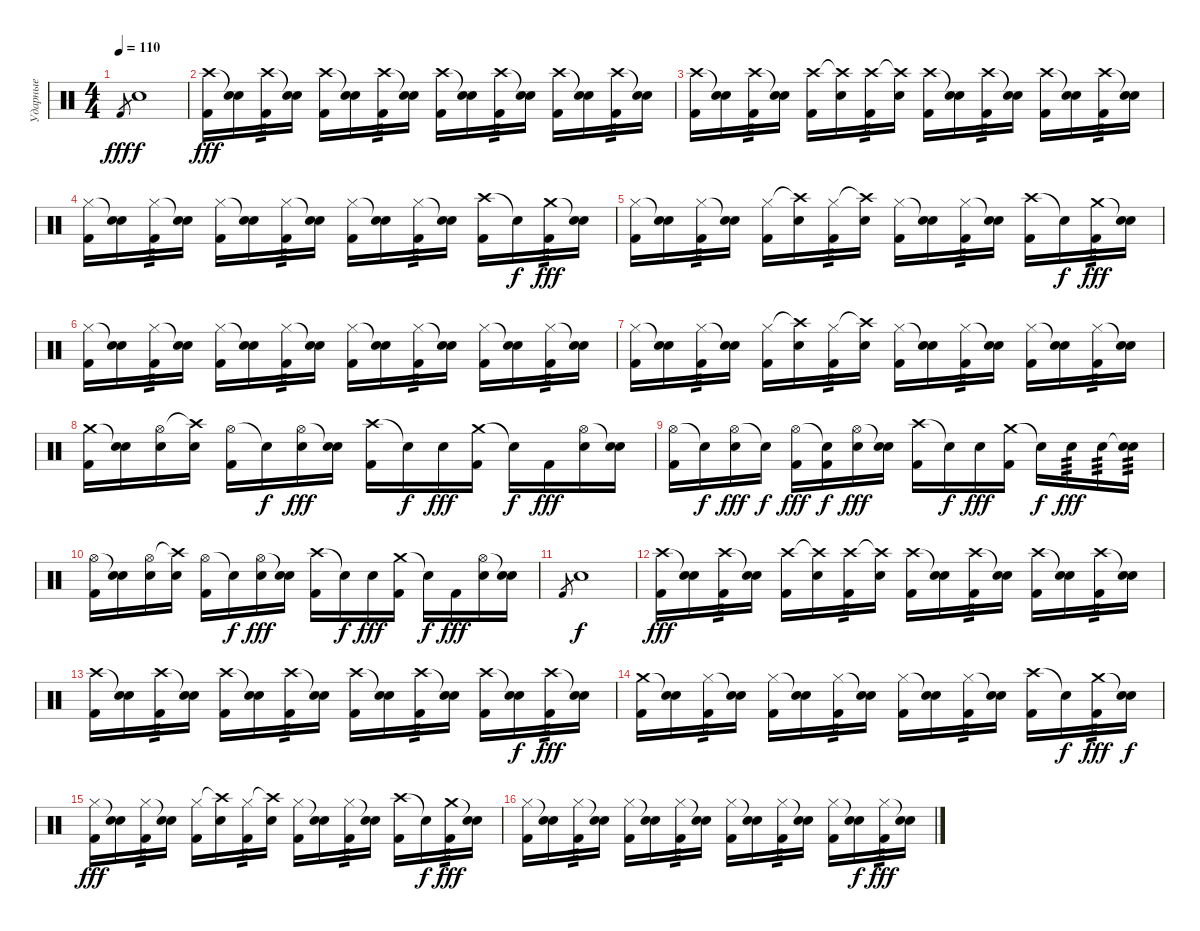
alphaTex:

\track ("Ударные" "Ударные") {instrument percussion}
\staff {score}
\articulation defaults
\ts (4 4)
\tempo 110
\clef neutral
\ks c "Kick (hit) 2".8{gr dy fff} "Electric Snare (hit)".1{dy f}
|
("Crash high (hit)" "Kick (hit) 2").16{dy fff} ("Snare (hit)"{t} "Electric Snare (hit)").16 ("Crash high (hit)" "Kick (hit) 2").16{tp 3} ("Snare (hit)"{t} "Electric Snare (hit)").16 ("Crash high (hit)" "Kick (hit) 2").16 ("Snare (hit)"{t} "Electric Snare (hit)").16 ("Crash high (hit)" "Kick (hit) 2").16{tp 3} ("Snare (hit)"{t} "Electric Snare (hit)").16 ("Crash high (hit)" "Kick (hit) 2").16 ("Snare (hit)"{t} "Electric Snare (hit)").16 ("Crash high (hit)" "Kick (hit) 2").16{tp 3} ("Snare (hit)"{t} "Electric Snare (hit)").16 ("Crash high (hit)" "Kick (hit) 2").16 ("Snare (hit)"{t} "Electric Snare (hit)").16 ("Crash high (hit)" "Kick (hit) 2").16{tp 3} ("Snare (hit)"{t} "Electric Snare (hit)").16 |
("Crash high (hit)" "Kick (hit) 2").16 ("Snare (hit)"{t} "Electric Snare (hit)").16 ("Crash high (hit)" "Kick (hit) 2").16{tp 3} ("Snare (hit)"{t} "Electric Snare (hit)").16 ("Crash high (hit)" "Kick (hit) 2").16 ("Crash high (hit)"{t} "Electric Snare (hit)").16 ("Crash high (hit)" "Kick (hit) 2").16{tp 3} ("Crash high (hit)"{t} "Electric Snare (hit)").16 ("Crash high (hit)" "Kick (hit) 2").16 ("Snare (hit)"{t} "Electric Snare (hit)").16 ("Crash high (hit)" "Kick (hit) 2").16{tp 3} ("Snare (hit)"{t} "Electric Snare (hit)").16 ("Crash high (hit)" "Kick (hit) 2").16 ("Snare (hit)"{t} "Electric Snare (hit)").16 ("Crash high (hit)" "Kick (hit) 2").16{tp 3} ("Snare (hit)"{t} "Electric Snare (hit)").16 |
("Hi-Hat (closed)" "Kick (hit) 2").16 ("Snare (hit)"{t} "Electric Snare (hit)").16 ("Hi-Hat (closed)" "Kick (hit) 2").16{tp 3} ("Snare (hit)"{t} "Electric Snare (hit)").16 ("Hi-Hat (closed)" "Kick (hit) 2").16 ("Snare (hit)"{t} "Electric Snare (hit)").16 ("Hi-Hat (closed)" "Kick (hit) 2").16{tp 3} ("Snare (hit)"{t} "Electric Snare (hit)").16 ("Hi-Hat (closed)" "Kick (hit) 2").16 ("Snare (hit)"{t} "Electric Snare (hit)").16 ("Hi-Hat (closed)" "Kick (hit) 2").16{tp 3} ("Snare (hit)"{t} "Electric Snare (hit)").16 ("Crash high (hit)" "Kick (hit) 2").16 "Snare (hit)"{t}.16{dy f} ("Crash medium (hit)" "Kick (hit) 2").16{tp 3 dy fff} ("Snare (hit)"{t} "Snare (hit)").16 |
("Hi-Hat (closed)" "Kick (hit) 2").16 ("Snare (hit)"{t} "Electric Snare (hit)").16 ("Hi-Hat (closed)" "Kick (hit) 2").16{tp 3} ("Snare (hit)"{t} "Electric Snare (hit)").16 ("Hi-Hat (closed)" "Kick (hit) 2").16 ("Crash high (hit)"{t} "Electric Snare (hit)").16 ("Hi-Hat (closed)" "Kick (hit) 2").16{tp 3} ("Crash high (hit)"{t} "Electric Snare (hit)").16 ("Hi-Hat (closed)" "Kick (hit) 2").16 ("Snare (hit)"{t} "Electric Snare (hit)").16 ("Hi-Hat (closed)" "Kick (hit) 2").16{tp 3} ("Snare (hit)"{t} "Electric Snare (hit)").16 ("Crash high (hit)" "Kick (hit) 2").16 "Snare (hit)"{t}.16{dy f} ("Crash medium (hit)" "Kick (hit) 2").16{tp 3 dy fff} ("Snare (hit)"{t} "Snare (hit)").16 |
("Hi-Hat (closed)" "Kick (hit) 2").16 ("Snare (hit)"{t} "Electric Snare (hit)").16 ("Hi-Hat (closed)" "Kick (hit) 2").16{tp 3} ("Snare (hit)"{t} "Electric Snare (hit)").16 ("Hi-Hat (closed)" "Kick (hit) 2").16 ("Snare (hit)"{t} "Electric Snare (hit)").16 ("Hi-Hat (closed)" "Kick (hit) 2").16{tp 3} ("Snare (hit)"{t} "Electric Snare (hit)").16 ("Hi-Hat (closed)" "Kick (hit) 2").16 ("Snare (hit)"{t} "Electric Snare (hit)").16 ("Hi-Hat (closed)" "Kick (hit) 2").16{tp 3} ("Snare (hit)"{t} "Electric Snare (hit)").16 ("Hi-Hat (closed)" "Kick (hit) 2").16 ("Snare (hit)"{t} "Electric Snare (hit)").16 ("Hi-Hat (closed)" "Kick (hit) 2").16{tp 3} ("Snare (hit)"{t} "Electric Snare (hit)").16 |
("Hi-Hat (closed)" "Kick (hit) 2").16 ("Snare (hit)"{t} "Electric Snare (hit)").16 ("Hi-Hat (closed)" "Kick (hit) 2").16{tp 3} ("Snare (hit)"{t} "Electric Snare (hit)").16 ("Hi-Hat (closed)" "Kick (hit) 2").16 ("Crash high (hit)"{t} "Electric Snare (hit)").16 ("Hi-Hat (closed)" "Kick (hit) 2").16{tp 3} ("Crash high (hit)"{t} "Electric Snare (hit)").16 ("Hi-Hat (closed)" "Kick (hit) 2").16 ("Snare (hit)"{t} "Electric Snare (hit)").16 ("Hi-Hat (closed)" "Kick (hit) 2").16{tp 3} ("Snare (hit)"{t} "Electric Snare (hit)").16 ("Hi-Hat (closed)" "Kick (hit) 2").16 ("Snare (hit)"{t} "Electric Snare (hit)").16 ("Hi-Hat (closed)" "Kick (hit) 2").16{tp 3} ("Snare (hit)"{t} "Electric Snare (hit)").16 |
("Crash medium (hit)" "Kick (hit) 2").16 ("Snare (hit)"{t} "Snare (hit)").16 ("Hi-Hat (open)" "Electric Snare (hit)").16 ("Crash high (hit)"{t} "Snare (hit)").16 ("Hi-Hat (open)" "Kick (hit) 2").16 "Snare (hit)"{t}.16{dy f} ("Hi-Hat (open)" "Electric Snare (hit)").16{dy fff} ("Snare (hit)"{t} "Snare (hit)").16 ("Crash high (hit)" "Kick (hit) 2").16 "Snare (hit)"{t}.16{dy f} "Electric Snare (hit)".16{dy fff} ("Crash medium (hit)" "Kick (hit) 2").16 "Snare (hit)"{t}.16{dy f} "Kick (hit) 2".16{dy fff} ("Hi-Hat (open)" "Electric Snare (hit)").16 ("Snare (hit)"{t} "Snare (hit)").16 |
("Hi-Hat (open)" "Kick (hit) 2").16 "Snare (hit)"{t}.16{dy f} ("Hi-Hat (open)" "Electric Snare (hit)").16{dy fff} "Snare (hit)"{t}.16{dy f} ("Hi-Hat (open)" "Kick (hit) 2").16{dy fff} ("Snare (hit)"{t} "Kick (hit) 2").16{dy f} ("Hi-Hat (open)" "Electric Snare (hit)").16{dy fff} ("Snare (hit)"{t} "Snare (hit)").16 ("Crash high (hit)" "Kick (hit) 2").16 "Snare (hit)"{t}.16{dy f} "Electric Snare (hit)".16{dy fff} ("Crash medium (hit)" "Kick (hit) 2").16 "Snare (hit)"{t}.16{dy f} "Electric Snare (hit)".16{tp 3 dy fff} "Electric Snare (hit)".16{tp 3} ("Snare (hit)"{t} "Electric Snare (hit)").16{tp 3} |
("Hi-Hat (open)" "Kick (hit) 2").16 ("Snare (hit)"{t} "Snare (hit)").16 ("Hi-Hat (open)" "Electric Snare (hit)").16 ("Crash high (hit)"{t} "Snare (hit)").16 ("Hi-Hat (open)" "Kick (hit) 2").16 "Snare (hit)"{t}.16{dy f} ("Hi-Hat (open)" "Electric Snare (hit)").16{dy fff} ("Snare (hit)"{t} "Snare (hit)").16 ("Crash high (hit)" "Kick (hit) 2").16 "Snare (hit)"{t}.16{dy f} "Electric Snare (hit)".16{dy fff} ("Crash medium (hit)" "Kick (hit) 2").16 "Snare (hit)"{t}.16{dy f} "Kick (hit) 2".16{dy fff} ("Hi-Hat (open)" "Electric Snare (hit)").16 ("Snare (hit)"{t} "Snare (hit)").16 |
"Kick (hit) 2".8{gr} "Electric Snare (hit)".1{dy f} |
("Crash high (hit)" "Kick (hit) 2").16{dy fff} ("Snare (hit)"{t} "Electric Snare (hit)").16 ("Crash high (hit)" "Kick (hit) 2").16{tp 3} ("Snare (hit)"{t} "Electric Snare (hit)").16 ("Crash high (hit)" "Kick (hit) 2").16 ("Crash high (hit)"{t} "Electric Snare (hit)").16 ("Crash high (hit)" "Kick (hit) 2").16{tp 3} ("Crash high (hit)"{t} "Electric Snare (hit)").16 ("Crash high (hit)" "Kick (hit) 2").16 ("Snare (hit)"{t} "Electric Snare (hit)").16 ("Crash high (hit)" "Kick (hit) 2").16{tp 3} ("Snare (hit)"{t} "Electric Snare (hit)").16 ("Crash high (hit)" "Kick (hit) 2").16 ("Snare (hit)"{t} "Electric Snare (hit)").16 ("Crash high (hit)" "Kick (hit) 2").16{tp 3} ("Snare (hit)"{t} "Electric Snare (hit)").16 |
("Crash high (hit)" "Kick (hit) 2").16 ("Snare (hit)"{t} "Electric Snare (hit)").16 ("Crash high (hit)" "Kick (hit) 2").16{tp 3} ("Snare (hit)"{t} "Electric Snare (hit)").16 ("Crash high (hit)" "Kick (hit) 2").16 ("Snare (hit)"{t} "Electric Snare (hit)").16 ("Crash high (hit)" "Kick (hit) 2").16{tp 3} ("Snare (hit)"{t} "Electric Snare (hit)").16 ("Crash high (hit)" "Kick (hit) 2").16 ("Snare (hit)"{t} "Electric Snare (hit)").16 ("Crash high (hit)" "Kick (hit) 2").16{tp 3} ("Snare (hit)"{t} "Electric Snare (hit)").16 ("Crash high (hit)" "Kick (hit) 2").16 ("Snare (hit)"{t} "Electric Snare (hit)").16{dy f} ("Crash high (hit)" "Kick (hit) 2").16{tp 3 dy fff} ("Snare (hit)"{t} "Electric Snare (hit)").16 |
("Crash medium (hit)" "Kick (hit) 2").16 ("Snare (hit)"{t} "Electric Snare (hit)").16 ("Hi-Hat (closed)" "Kick (hit) 2").16{tp 3} ("Snare (hit)"{t} "Electric Snare (hit)").16 ("Hi-Hat (closed)" "Kick (hit) 2").16 ("Snare (hit)"{t} "Electric Snare (hit)").16 ("Hi-Hat (closed)" "Kick (hit) 2").16{tp 3} ("Snare (hit)"{t} "Electric Snare (hit)").16 ("Hi-Hat (closed)" "Kick (hit) 2").16 ("Snare (hit)"{t} "Electric Snare (hit)").16 ("Hi-Hat (closed)" "Kick (hit) 2").16{tp 3} ("Snare (hit)"{t} "Electric Snare (hit)").16 ("Crash high (hit)" "Kick (hit) 2").16 "Snare (hit)"{t}.16{dy f} ("Crash medium (hit)" "Kick (hit) 2").16{tp 3 dy fff} ("Snare (hit)"{t} "Snare (hit)").16{dy f} |
("Hi-Hat (closed)" "Kick (hit) 2").16{dy fff} ("Snare (hit)"{t} "Electric Snare (hit)").16 ("Hi-Hat (closed)" "Kick (hit) 2").16{tp 3} ("Snare (hit)"{t} "Electric Snare (hit)").16 ("Hi-Hat (closed)" "Kick (hit) 2").16 ("Crash high (hit)"{t} "Electric Snare (hit)").16 ("Hi-Hat (closed)" "Kick (hit) 2").16{tp 3} ("Crash high (hit)"{t} "Electric Snare (hit)").16 ("Hi-Hat (closed)" "Kick (hit) 2").16 ("Snare (hit)"{t} "Electric Snare (hit)").16 ("Hi-Hat (closed)" "Kick (hit) 2").16{tp 3} ("Snare (hit)"{t} "Electric Snare (hit)").16 ("Crash high (hit)" "Kick (hit) 2").16 "Snare (hit)"{t}.16{dy f} ("Crash medium (hit)" "Kick (hit) 2").16{tp 3 dy fff} ("Snare (hit)"{t} "Snare (hit)").16 |
("Hi-Hat (closed)" "Kick (hit) 2").16 ("Snare (hit)"{t} "Electric Snare (hit)").16 ("Hi-Hat (closed)" "Kick (hit) 2").16{tp 3} ("Snare (hit)"{t} "Electric Snare (hit)").16 ("Hi-Hat (closed)" "Kick (hit) 2").16 ("Snare (hit)"{t} "Electric Snare (hit)").16 ("Hi-Hat (closed)" "Kick (hit) 2").16{tp 3} ("Snare (hit)"{t} "Electric Snare (hit)").16 ("Hi-Hat (closed)" "Kick (hit) 2").16 ("Snare (hit)"{t} "Electric Snare (hit)").16 ("Hi-Hat (closed)" "Kick (hit) 2").16{tp 3} ("Snare (hit)"{t} "Electric Snare (hit)").16 ("Hi-Hat (closed)" "Kick (hit) 2").16 ("Snare (hit)"{t} "Electric Snare (hit)").16{dy f} ("Hi-Hat (closed)" "Kick (hit) 2").16{tp 3 dy fff} ("Snare (hit)"{t} "Electric Snare (hit)").16
